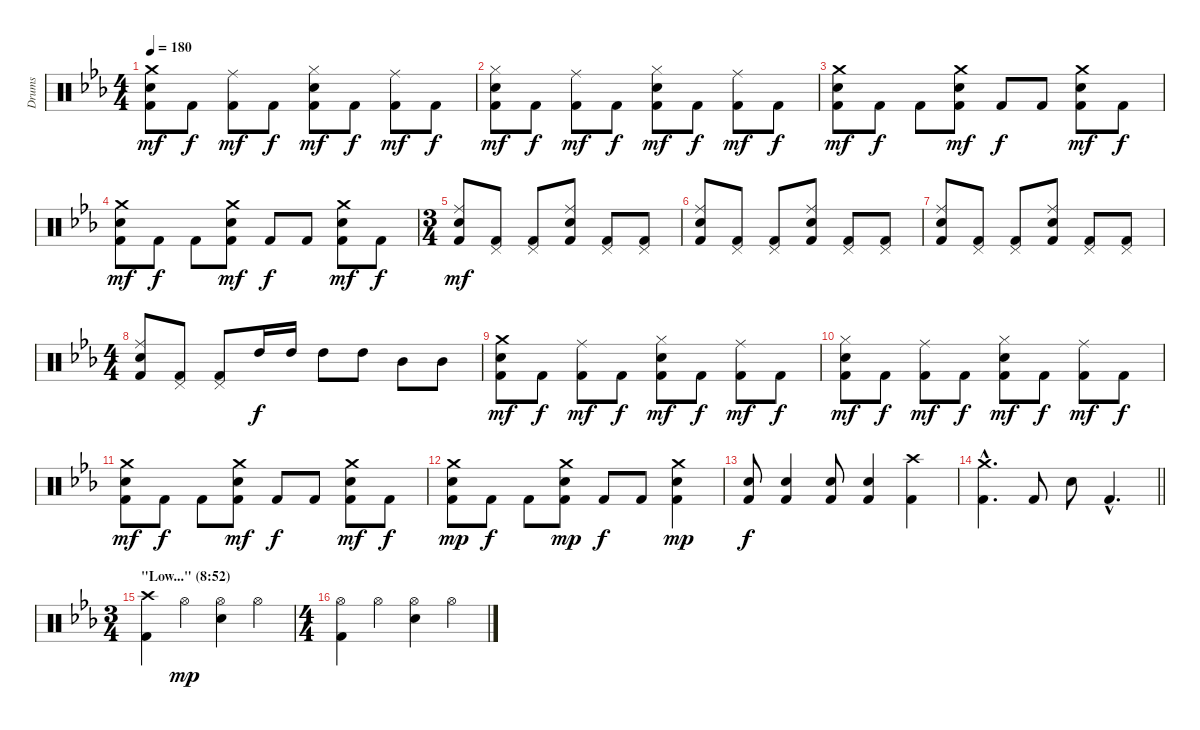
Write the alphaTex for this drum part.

\track ("Drums" "Drums") {instrument percussion}
\staff {score}
\articulation defaults
\ts (4 4)
\tempo 180
\clef neutral
\ks eb
("Crash medium (hit)" "Electric Snare (hit)" "Kick (hit) 2").8{dy mf} "Kick (hit) 2".8{dy f} ("Ride (middle)" "Kick (hit) 2").8{dy mf} "Kick (hit) 2".8{dy f} ("Hi-Hat (closed)" "Electric Snare (hit)" "Kick (hit) 2").8{dy mf} "Kick (hit) 2".8{dy f} ("Ride (middle)" "Kick (hit) 2").8{dy mf} "Kick (hit) 2".8{dy f} |
("Hi-Hat (closed)" "Electric Snare (hit)" "Kick (hit) 2").8{dy mf} "Kick (hit) 2".8{dy f} ("Ride (middle)" "Kick (hit) 2").8{dy mf} "Kick (hit) 2".8{dy f} ("Hi-Hat (closed)" "Electric Snare (hit)" "Kick (hit) 2").8{dy mf} "Kick (hit) 2".8{dy f} ("Ride (middle)" "Kick (hit) 2").8{dy mf} "Kick (hit) 2".8{dy f} |
("Crash medium (hit)" "Electric Snare (hit)" "Kick (hit) 2").8{dy mf} "Kick (hit) 2".8{dy f} "Kick (hit) 2".8 ("Crash medium (hit)" "Electric Snare (hit)" "Kick (hit) 2").8{dy mf} "Kick (hit) 2".8{dy f} "Kick (hit) 2".8 ("Crash medium (hit)" "Electric Snare (hit)" "Kick (hit) 2").8{dy mf} "Kick (hit) 2".8{dy f} |
("Crash medium (hit)" "Electric Snare (hit)" "Kick (hit) 2").8{dy mf} "Kick (hit) 2".8{dy f} "Kick (hit) 2".8 ("Crash medium (hit)" "Electric Snare (hit)" "Kick (hit) 2").8{dy mf} "Kick (hit) 2".8{dy f} "Kick (hit) 2".8 ("Crash medium (hit)" "Electric Snare (hit)" "Kick (hit) 2").8{dy mf} "Kick (hit) 2".8{dy f} |
\ts (3 4)
("Ride (middle)" "Electric Snare (hit)" "Kick (hit) 2").8{dy mf} ("Pedal Hi-Hat (hit)" "Kick (hit) 2").8 ("Pedal Hi-Hat (hit)" "Kick (hit) 2").8 ("Ride (middle)" "Electric Snare (hit)" "Kick (hit) 2").8 ("Pedal Hi-Hat (hit)" "Kick (hit) 2").8 ("Pedal Hi-Hat (hit)" "Kick (hit) 2").8 |
("Ride (middle)" "Electric Snare (hit)" "Kick (hit) 2").8 ("Pedal Hi-Hat (hit)" "Kick (hit) 2").8 ("Pedal Hi-Hat (hit)" "Kick (hit) 2").8 ("Ride (middle)" "Electric Snare (hit)" "Kick (hit) 2").8 ("Pedal Hi-Hat (hit)" "Kick (hit) 2").8 ("Pedal Hi-Hat (hit)" "Kick (hit) 2").8 |
("Ride (middle)" "Electric Snare (hit)" "Kick (hit) 2").8 ("Pedal Hi-Hat (hit)" "Kick (hit) 2").8 ("Pedal Hi-Hat (hit)" "Kick (hit) 2").8 ("Ride (middle)" "Electric Snare (hit)" "Kick (hit) 2").8 ("Pedal Hi-Hat (hit)" "Kick (hit) 2").8 ("Pedal Hi-Hat (hit)" "Kick (hit) 2").8 |
\ts (4 4)
("Ride (middle)" "Electric Snare (hit)" "Kick (hit) 2").8 ("Pedal Hi-Hat (hit)" "Kick (hit) 2").8 ("Pedal Hi-Hat (hit)" "Kick (hit) 2").8 "High Tom (hit)".16{dy f} "High Tom (hit)".16 "High Tom (hit)".8 "High Tom (hit)".8 "Mid Tom (hit)".8 "Mid Tom (hit)".8 |
("Crash medium (hit)" "Electric Snare (hit)" "Kick (hit) 2").8{dy mf} "Kick (hit) 2".8{dy f} ("Ride (middle)" "Kick (hit) 2").8{dy mf} "Kick (hit) 2".8{dy f} ("Hi-Hat (closed)" "Electric Snare (hit)" "Kick (hit) 2").8{dy mf} "Kick (hit) 2".8{dy f} ("Ride (middle)" "Kick (hit) 2").8{dy mf} "Kick (hit) 2".8{dy f} |
("Hi-Hat (closed)" "Electric Snare (hit)" "Kick (hit) 2").8{dy mf} "Kick (hit) 2".8{dy f} ("Ride (middle)" "Kick (hit) 2").8{dy mf} "Kick (hit) 2".8{dy f} ("Hi-Hat (closed)" "Electric Snare (hit)" "Kick (hit) 2").8{dy mf} "Kick (hit) 2".8{dy f} ("Ride (middle)" "Kick (hit) 2").8{dy mf} "Kick (hit) 2".8{dy f} |
("Crash medium (hit)" "Electric Snare (hit)" "Kick (hit) 2").8{dy mf} "Kick (hit) 2".8{dy f} "Kick (hit) 2".8 ("Crash medium (hit)" "Electric Snare (hit)" "Kick (hit) 2").8{dy mf} "Kick (hit) 2".8{dy f} "Kick (hit) 2".8 ("Crash medium (hit)" "Electric Snare (hit)" "Kick (hit) 2").8{dy mf} "Kick (hit) 2".8{dy f} |
("Crash medium (hit)" "Electric Snare (hit)" "Kick (hit) 2").8{dy mp} "Kick (hit) 2".8{dy f} "Kick (hit) 2".8 ("Crash medium (hit)" "Electric Snare (hit)" "Kick (hit) 2").8{dy mp} "Kick (hit) 2".8{dy f} "Kick (hit) 2".8 ("Crash medium (hit)" "Electric Snare (hit)" "Kick (hit) 2").4{dy mp} |
("Electric Snare (hit)" "Kick (hit) 2").8{dy f} ("Electric Snare (hit)" "Kick (hit) 2").4 ("Electric Snare (hit)" "Kick (hit) 2").8 ("Electric Snare (hit)" "Kick (hit) 2").4 ("Crash high (hit)" "Kick (hit) 2").4 |
\barLineRight lightlight
("Crash medium (hit)"{hac} "Kick (hit) 2"{hac}).4{d} "Kick (hit) 2".8 "Electric Snare (hit)".8 "Kick (hit) 2"{hac}.4{d} |
\ts (3 4)
\section ("" "\"Low...\" (8:52)")
("Crash high (hit)" "Kick (hit) 2").4 "Hi-Hat (open)".4{dy mp} ("Hi-Hat (open)" "Electric Snare (hit)").4 "Hi-Hat (open)".4 |
\ts (4 4)
("Hi-Hat (open)" "Kick (hit) 2").4 "Hi-Hat (open)".4 ("Hi-Hat (open)" "Electric Snare (hit)").4 "Hi-Hat (open)".4
